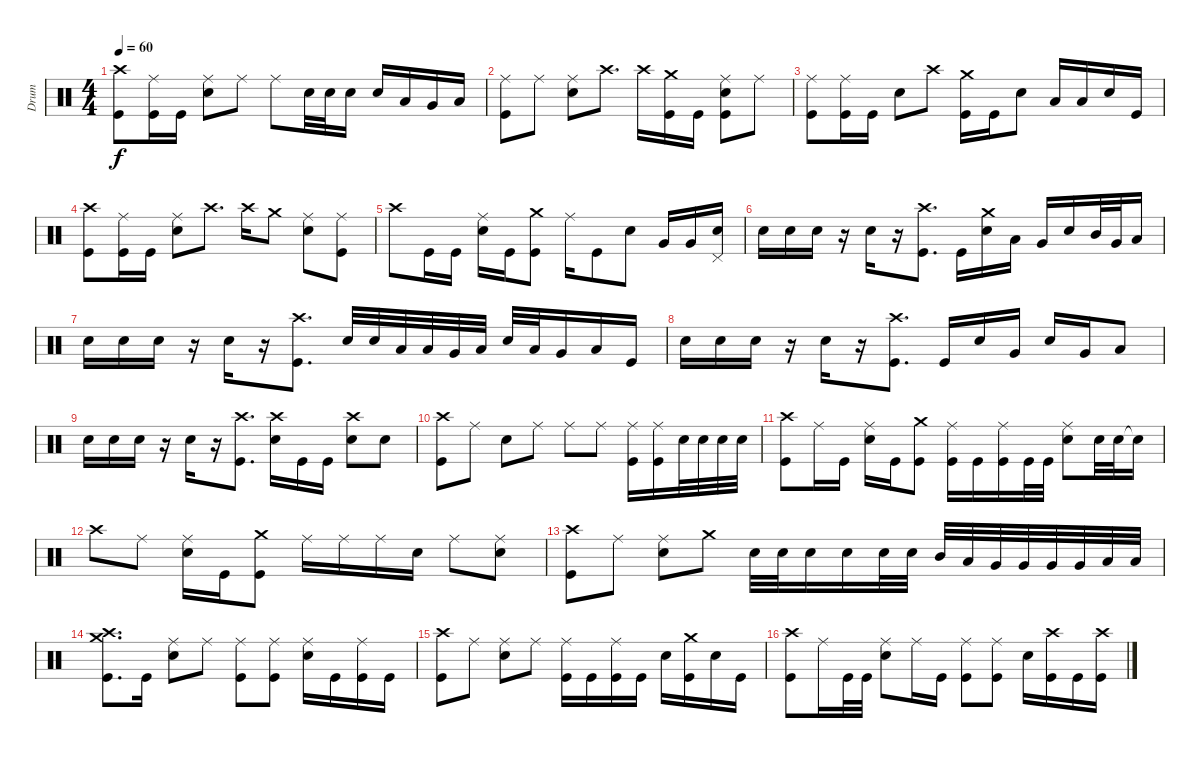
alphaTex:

\track ("Drum" "Drum") {instrument percussion}
\staff {score}
\articulation defaults
\ts (4 4)
\tempo 60
\clef neutral
\ks c
("Crash high (hit)" "Kick (hit)").8{dy f} ("Ride (middle)" "Kick (hit)").16 "Kick (hit)".16 ("Ride (middle)" "Snare (hit) 2").8 "Ride (middle)".8 "Ride (middle)".8 "Snare (hit) 2".32 "Snare (hit) 2".32 "Snare (hit) 2".16 "Snare (hit) 2".16 "Low Tom (hit)".16 "Very Low Tom (hit)".16 "Low Floor Tom (hit)".16 |
("Ride (middle)" "Kick (hit)").8 "Ride (middle)".8 ("Ride (middle)" "Snare (hit) 2").8 "Crash high (hit)".8{d} "Crash high (hit)".16 ("Crash medium (hit)" "Kick (hit)").16 "Kick (hit)".16 ("Ride (middle)" "Snare (hit) 2" "Kick (hit)").8 "Ride (middle)".8 |
("Ride (middle)" "Kick (hit)").8 ("Ride (middle)" "Kick (hit)").16 "Kick (hit)".16 "Snare (hit) 2".8 "Crash high (hit)".8 ("Crash medium (hit)" "Kick (hit)").16 "Kick (hit)".16 "Snare (hit) 2".8 "Low Tom (hit)".16 "Low Tom (hit)".16 "Snare (hit) 2".16 "Kick (hit)".16 |
("Crash high (hit)" "Kick (hit)").8 ("Ride (middle)" "Kick (hit)").16 "Kick (hit)".16 ("Ride (middle)" "Snare (hit) 2").8 "Crash high (hit)".8{d} "Crash high (hit)".16 "Crash medium (hit)".8 ("Ride (middle)" "Snare (hit) 2").8 ("Ride (middle)" "Kick (hit)").8 |
"Crash high (hit)".8 "Kick (hit)".16 "Kick (hit)".16 ("Ride (middle)" "Snare (hit) 2").16 "Kick (hit)".16 ("Crash medium (hit)" "Kick (hit)").8 "Ride (middle)".16 "Kick (hit)".8 "Snare (hit) 2".8 "Very Low Tom (hit)".16 "Very Low Tom (hit)".16 ("Pedal Hi-Hat (hit)" "Snare (hit) 2").16 |
"Snare (hit) 2".16 "Snare (hit) 2".16 "Snare (hit) 2".16 r.16 "Snare (hit) 2".16 r.16 ("Crash high (hit)" "Kick (hit)").8{d} "Kick (hit)".16 ("Crash medium (hit)" "Snare (hit) 2").16 "Low Tom (hit)".16 "Very Low Tom (hit)".16 "Snare (hit) 2".16 "Mid Tom (hit)".32 "Very Low Tom (hit)".32 "Low Floor Tom (hit)".16 |
"Snare (hit) 2".16 "Snare (hit) 2".16 "Snare (hit) 2".16 r.16 "Snare (hit) 2".16 r.16 ("Crash high (hit)" "Kick (hit)").8{d} "Snare (hit) 2".32 "Snare (hit) 2".32 "Low Tom (hit)".32 "Low Tom (hit)".32 "Very Low Tom (hit)".32 "Low Floor Tom (hit)".32 "Snare (hit) 2".32 "Low Tom (hit)".32 "Very Low Tom (hit)".16 "Low Floor Tom (hit)".16 "Kick (hit)".16 |
"Snare (hit) 2".16 "Snare (hit) 2".16 "Snare (hit) 2".16 r.16 "Snare (hit) 2".16 r.16 ("Crash high (hit)" "Kick (hit)").8{d} "Kick (hit)".16 "Snare (hit) 2".16 "Very Low Tom (hit)".16 "Snare (hit) 2".16 "Very Low Tom (hit)".16 "Low Floor Tom (hit)".8 |
"Snare (hit) 2".16 "Snare (hit) 2".16 "Snare (hit) 2".16 r.16 "Snare (hit) 2".16 r.16 ("Crash high (hit)" "Kick (hit)").8{d} ("Crash high (hit)" "Snare (hit) 2").16 "Kick (hit)".16 "Kick (hit)".16 ("Crash high (hit)" "Snare (hit) 2").8 "Snare (hit) 2".8 |
("Crash high (hit)" "Kick (hit)").8 "Ride (middle)".8 "Snare (hit) 2".8 "Ride (middle)".8 "Ride (middle)".8 "Ride (middle)".8 ("Ride (middle)" "Kick (hit)").16 ("Ride (middle)" "Kick (hit)").16 "Snare (hit) 2".32 "Snare (hit) 2".32 "Snare (hit) 2".32 "Snare (hit) 2".32 |
("Crash high (hit)" "Kick (hit)").8 "Ride (middle)".16 "Kick (hit)".16 ("Ride (middle)" "Snare (hit) 2").16 "Kick (hit)".16 ("Crash medium (hit)" "Kick (hit)").8 ("Ride (middle)" "Kick (hit)").16 "Kick (hit)".16 ("Ride (middle)" "Kick (hit)").16 "Kick (hit)".32 "Kick (hit)".32 ("Ride (middle)" "Snare (hit) 2").8 "Snare (hit) 2".32 "Snare (hit) 2".32 "Snare (hit) 2"{t}.16 |
"Crash high (hit)".8 "Ride (middle)".8 ("Ride (middle)" "Snare (hit) 2").16 "Kick (hit)".16 ("Crash medium (hit)" "Kick (hit)").8 "Ride (middle)".16 "Ride (middle)".16 "Ride (middle)".16 "Snare (hit) 2".16 "Ride (middle)".8 ("Ride (middle)" "Snare (hit) 2").8 |
("Crash high (hit)" "Kick (hit)").8 "Ride (middle)".8 ("Ride (middle)" "Snare (hit) 2").8 "Crash medium (hit)".8 "Snare (hit) 2".32 "Snare (hit) 2".32 "Snare (hit) 2".16 "Snare (hit) 2".16 "Snare (hit) 2".32 "Snare (hit) 2".32 "Mid Tom (hit)".32 "Low Tom (hit)".32 "Very Low Tom (hit)".32 "Very Low Tom (hit)".32 "Very Low Tom (hit)".32 "Very Low Tom (hit)".32 "Low Floor Tom (hit)".32 "Low Floor Tom (hit)".32 |
("Crash high (hit)" "Crash medium (hit)" "Kick (hit)").8{d} "Kick (hit)".16 ("Ride (middle)" "Snare (hit) 2").8 "Ride (middle)".8 ("Ride (middle)" "Kick (hit)").8 ("Ride (middle)" "Kick (hit)").8 ("Ride (middle)" "Snare (hit) 2").16 "Kick (hit)".16 ("Ride (middle)" "Kick (hit)").16 "Kick (hit)".16 |
("Crash high (hit)" "Kick (hit)").8 "Ride (middle)".8 ("Ride (middle)" "Snare (hit) 2").8 "Ride (middle)".8 ("Ride (middle)" "Kick (hit)").16 "Kick (hit)".16 ("Ride (middle)" "Kick (hit)").16 "Kick (hit)".16 "Snare (hit) 2".16 ("Crash medium (hit)" "Kick (hit)").16 "Snare (hit) 2".16 "Kick (hit)".16 |
("Crash high (hit)" "Kick (hit)").8 "Ride (middle)".16 "Kick (hit)".32 "Kick (hit)".32 ("Ride (middle)" "Snare (hit) 2").8 "Ride (middle)".16 "Kick (hit)".16 ("Ride (middle)" "Kick (hit)").8 ("Ride (middle)" "Kick (hit)").8 "Snare (hit) 2".16 ("Crash high (hit)" "Kick (hit)").16 "Kick (hit)".16 ("Crash high (hit)" "Kick (hit)").16
